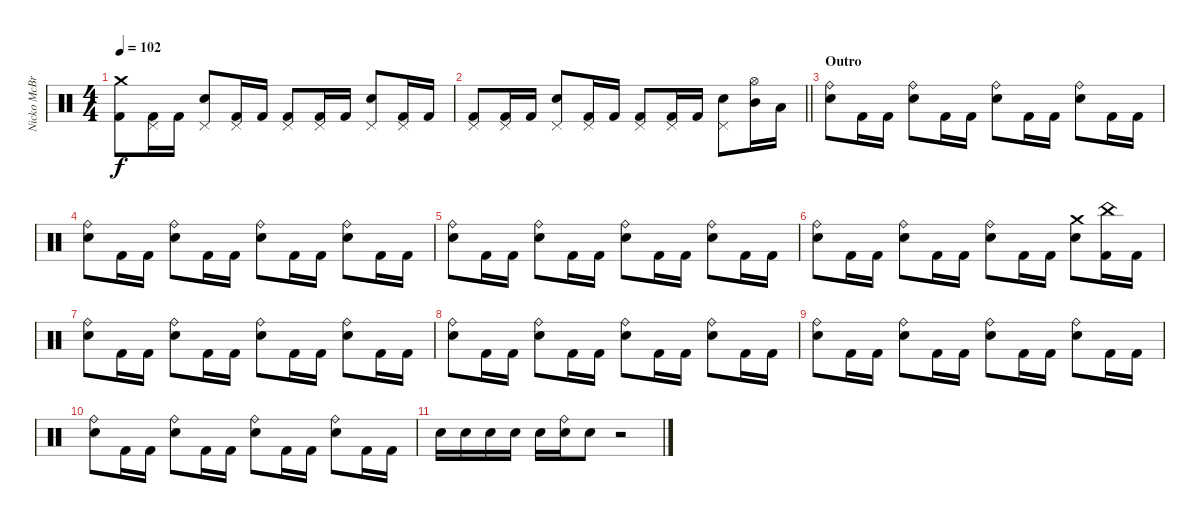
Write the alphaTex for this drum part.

\track ("Nicko McBrain" "Nicko McBr") {instrument percussion}
\staff {score}
\articulation defaults
\ts (4 4)
\tempo 102
\clef neutral
\ks c
("Crash medium (hit)" "Kick (hit) 2").8{dy f} ("Pedal Hi-Hat (hit)" "Kick (hit) 2").16 "Kick (hit) 2".16 ("Pedal Hi-Hat (hit)" "Electric Snare (hit)").8 ("Pedal Hi-Hat (hit)" "Kick (hit) 2").16 "Kick (hit) 2".16 ("Pedal Hi-Hat (hit)" "Kick (hit) 2").8 ("Pedal Hi-Hat (hit)" "Kick (hit) 2").16 "Kick (hit) 2".16 ("Pedal Hi-Hat (hit)" "Electric Snare (hit)").8 ("Pedal Hi-Hat (hit)" "Kick (hit) 2").16 "Kick (hit) 2".16 |
\barLineRight lightlight
("Pedal Hi-Hat (hit)" "Kick (hit) 2").8 ("Pedal Hi-Hat (hit)" "Kick (hit) 2").16 "Kick (hit) 2".16 ("Pedal Hi-Hat (hit)" "Electric Snare (hit)").8 ("Pedal Hi-Hat (hit)" "Kick (hit) 2").16 "Kick (hit) 2".16 ("Pedal Hi-Hat (hit)" "Kick (hit) 2").8 ("Pedal Hi-Hat (hit)" "Kick (hit) 2").16 "Kick (hit) 2".16 ("Pedal Hi-Hat (hit)" "Electric Snare (hit)").8 ("Hi-Hat (open)" "Mid Tom (hit)").16 "Low Tom (hit)".16 |
\section ("" "Outro")
("Ride (bell)" "Electric Snare (hit)").8 "Kick (hit) 2".16 "Kick (hit) 2".16 ("Ride (bell)" "Electric Snare (hit)").8 "Kick (hit) 2".16 "Kick (hit) 2".16 ("Ride (bell)" "Electric Snare (hit)").8 "Kick (hit) 2".16 "Kick (hit) 2".16 ("Ride (bell)" "Electric Snare (hit)").8 "Kick (hit) 2".16 "Kick (hit) 2".16 |
("Ride (bell)" "Electric Snare (hit)").8 "Kick (hit) 2".16 "Kick (hit) 2".16 ("Ride (bell)" "Electric Snare (hit)").8 "Kick (hit) 2".16 "Kick (hit) 2".16 ("Ride (bell)" "Electric Snare (hit)").8 "Kick (hit) 2".16 "Kick (hit) 2".16 ("Ride (bell)" "Electric Snare (hit)").8 "Kick (hit) 2".16 "Kick (hit) 2".16 |
("Ride (bell)" "Electric Snare (hit)").8 "Kick (hit) 2".16 "Kick (hit) 2".16 ("Ride (bell)" "Electric Snare (hit)").8 "Kick (hit) 2".16 "Kick (hit) 2".16 ("Ride (bell)" "Electric Snare (hit)").8 "Kick (hit) 2".16 "Kick (hit) 2".16 ("Ride (bell)" "Electric Snare (hit)").8 "Kick (hit) 2".16 "Kick (hit) 2".16 |
("Ride (bell)" "Electric Snare (hit)").8 "Kick (hit) 2".16 "Kick (hit) 2".16 ("Ride (bell)" "Electric Snare (hit)").8 "Kick (hit) 2".16 "Kick (hit) 2".16 ("Ride (bell)" "Electric Snare (hit)").8 "Kick (hit) 2".16 "Kick (hit) 2".16 ("Crash medium (hit)" "Electric Snare (hit)").8 ("China (hit)" "Kick (hit) 2").16 "Kick (hit) 2".16 |
("Ride (bell)" "Electric Snare (hit)").8 "Kick (hit) 2".16 "Kick (hit) 2".16 ("Ride (bell)" "Electric Snare (hit)").8 "Kick (hit) 2".16 "Kick (hit) 2".16 ("Ride (bell)" "Electric Snare (hit)").8 "Kick (hit) 2".16 "Kick (hit) 2".16 ("Ride (bell)" "Electric Snare (hit)").8 "Kick (hit) 2".16 "Kick (hit) 2".16 |
("Ride (bell)" "Electric Snare (hit)").8 "Kick (hit) 2".16 "Kick (hit) 2".16 ("Ride (bell)" "Electric Snare (hit)").8 "Kick (hit) 2".16 "Kick (hit) 2".16 ("Ride (bell)" "Electric Snare (hit)").8 "Kick (hit) 2".16 "Kick (hit) 2".16 ("Ride (bell)" "Electric Snare (hit)").8 "Kick (hit) 2".16 "Kick (hit) 2".16 |
("Ride (bell)" "Electric Snare (hit)").8 "Kick (hit) 2".16 "Kick (hit) 2".16 ("Ride (bell)" "Electric Snare (hit)").8 "Kick (hit) 2".16 "Kick (hit) 2".16 ("Ride (bell)" "Electric Snare (hit)").8 "Kick (hit) 2".16 "Kick (hit) 2".16 ("Ride (bell)" "Electric Snare (hit)").8 "Kick (hit) 2".16 "Kick (hit) 2".16 |
("Ride (bell)" "Electric Snare (hit)").8 "Kick (hit) 2".16 "Kick (hit) 2".16 ("Ride (bell)" "Electric Snare (hit)").8 "Kick (hit) 2".16 "Kick (hit) 2".16 ("Ride (bell)" "Electric Snare (hit)").8 "Kick (hit) 2".16 "Kick (hit) 2".16 ("Ride (bell)" "Electric Snare (hit)").8 "Kick (hit) 2".16 "Kick (hit) 2".16 |
"Electric Snare (hit)".16 "Electric Snare (hit)".16 "Electric Snare (hit)".16 "Electric Snare (hit)".16 "Electric Snare (hit)".16 ("Ride (bell)" "Electric Snare (hit)").16 "Electric Snare (hit)".8 r.2
